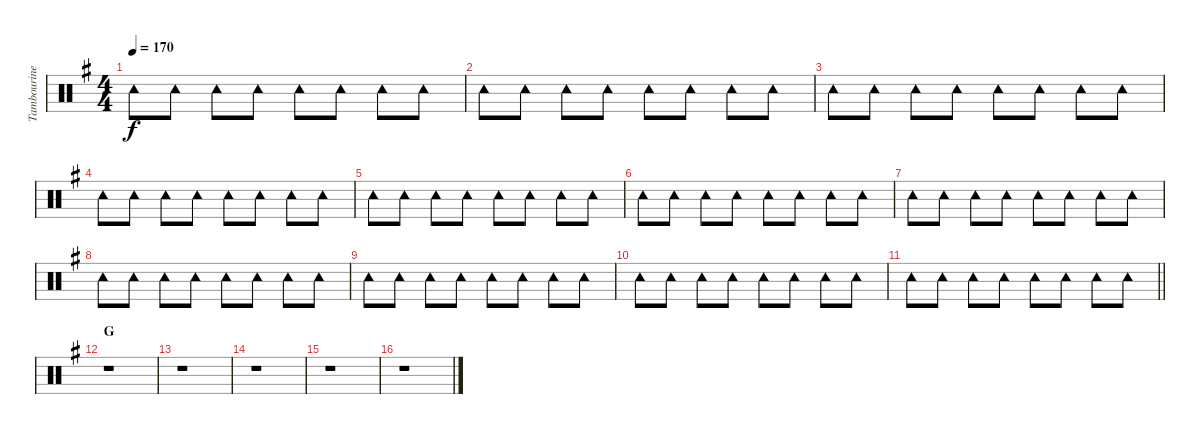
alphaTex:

\track ("Tambourine" "Tambourine") {instrument percussion}
\staff {score}
\articulation defaults
\ts (4 4)
\tempo 170
\clef neutral
\ks g "Tambourine (hit)".8{dy f} "Tambourine (hit)".8 "Tambourine (hit)".8 "Tambourine (hit)".8 "Tambourine (hit)".8 "Tambourine (hit)".8 "Tambourine (hit)".8 "Tambourine (hit)".8
|
"Tambourine (hit)".8 "Tambourine (hit)".8 "Tambourine (hit)".8 "Tambourine (hit)".8 "Tambourine (hit)".8 "Tambourine (hit)".8 "Tambourine (hit)".8 "Tambourine (hit)".8 |
"Tambourine (hit)".8 "Tambourine (hit)".8 "Tambourine (hit)".8 "Tambourine (hit)".8 "Tambourine (hit)".8 "Tambourine (hit)".8 "Tambourine (hit)".8 "Tambourine (hit)".8 |
"Tambourine (hit)".8 "Tambourine (hit)".8 "Tambourine (hit)".8 "Tambourine (hit)".8 "Tambourine (hit)".8 "Tambourine (hit)".8 "Tambourine (hit)".8 "Tambourine (hit)".8 |
"Tambourine (hit)".8 "Tambourine (hit)".8 "Tambourine (hit)".8 "Tambourine (hit)".8 "Tambourine (hit)".8 "Tambourine (hit)".8 "Tambourine (hit)".8 "Tambourine (hit)".8 |
"Tambourine (hit)".8 "Tambourine (hit)".8 "Tambourine (hit)".8 "Tambourine (hit)".8 "Tambourine (hit)".8 "Tambourine (hit)".8 "Tambourine (hit)".8 "Tambourine (hit)".8 |
"Tambourine (hit)".8 "Tambourine (hit)".8 "Tambourine (hit)".8 "Tambourine (hit)".8 "Tambourine (hit)".8 "Tambourine (hit)".8 "Tambourine (hit)".8 "Tambourine (hit)".8 |
"Tambourine (hit)".8 "Tambourine (hit)".8 "Tambourine (hit)".8 "Tambourine (hit)".8 "Tambourine (hit)".8 "Tambourine (hit)".8 "Tambourine (hit)".8 "Tambourine (hit)".8 |
"Tambourine (hit)".8 "Tambourine (hit)".8 "Tambourine (hit)".8 "Tambourine (hit)".8 "Tambourine (hit)".8 "Tambourine (hit)".8 "Tambourine (hit)".8 "Tambourine (hit)".8 |
"Tambourine (hit)".8 "Tambourine (hit)".8 "Tambourine (hit)".8 "Tambourine (hit)".8 "Tambourine (hit)".8 "Tambourine (hit)".8 "Tambourine (hit)".8 "Tambourine (hit)".8 |
\barLineRight lightlight "Tambourine (hit)".8 "Tambourine (hit)".8 "Tambourine (hit)".8 "Tambourine (hit)".8 "Tambourine (hit)".8 "Tambourine (hit)".8 "Tambourine (hit)".8 "Tambourine (hit)".8
|
\section ("" "G")
r.1 |
r.1 |
r.1 |
r.1 |
r.1
